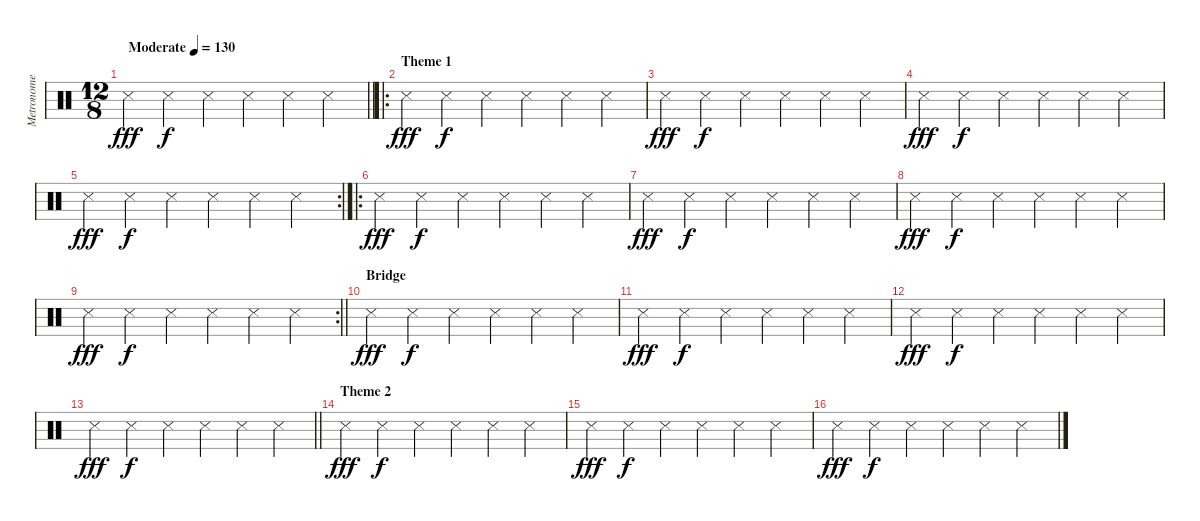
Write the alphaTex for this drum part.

\track ("Metronome" "Metronome") {instrument percussion}
\staff {score}
\articulation defaults
\ts (12 8)
\tempo (130 "Moderate")
\clef neutral
\barLineRight lightlight
\ks c "Snare (side stick) 3".4{dy fff} "Snare (side stick) 3".4{dy f} "Snare (side stick) 3".4 "Snare (side stick) 3".4 "Snare (side stick) 3".4 "Snare (side stick) 3".4
|
\ro
\section ("" "Theme 1")
"Snare (side stick) 3".4{dy fff} "Snare (side stick) 3".4{dy f} "Snare (side stick) 3".4 "Snare (side stick) 3".4 "Snare (side stick) 3".4 "Snare (side stick) 3".4 |
"Snare (side stick) 3".4{dy fff} "Snare (side stick) 3".4{dy f} "Snare (side stick) 3".4 "Snare (side stick) 3".4 "Snare (side stick) 3".4 "Snare (side stick) 3".4 |
"Snare (side stick) 3".4{dy fff} "Snare (side stick) 3".4{dy f} "Snare (side stick) 3".4 "Snare (side stick) 3".4 "Snare (side stick) 3".4 "Snare (side stick) 3".4 |
\rc 2 "Snare (side stick) 3".4{dy fff} "Snare (side stick) 3".4{dy f} "Snare (side stick) 3".4 "Snare (side stick) 3".4 "Snare (side stick) 3".4 "Snare (side stick) 3".4
|
\ro "Snare (side stick) 3".4{dy fff} "Snare (side stick) 3".4{dy f} "Snare (side stick) 3".4 "Snare (side stick) 3".4 "Snare (side stick) 3".4 "Snare (side stick) 3".4
|
"Snare (side stick) 3".4{dy fff} "Snare (side stick) 3".4{dy f} "Snare (side stick) 3".4 "Snare (side stick) 3".4 "Snare (side stick) 3".4 "Snare (side stick) 3".4 |
"Snare (side stick) 3".4{dy fff} "Snare (side stick) 3".4{dy f} "Snare (side stick) 3".4 "Snare (side stick) 3".4 "Snare (side stick) 3".4 "Snare (side stick) 3".4 |
\rc 2
\barLineRight lightlight "Snare (side stick) 3".4{dy fff} "Snare (side stick) 3".4{dy f} "Snare (side stick) 3".4 "Snare (side stick) 3".4 "Snare (side stick) 3".4 "Snare (side stick) 3".4
|
\section ("" "Bridge")
"Snare (side stick) 3".4{dy fff} "Snare (side stick) 3".4{dy f} "Snare (side stick) 3".4 "Snare (side stick) 3".4 "Snare (side stick) 3".4 "Snare (side stick) 3".4 |
"Snare (side stick) 3".4{dy fff} "Snare (side stick) 3".4{dy f} "Snare (side stick) 3".4 "Snare (side stick) 3".4 "Snare (side stick) 3".4 "Snare (side stick) 3".4 |
"Snare (side stick) 3".4{dy fff} "Snare (side stick) 3".4{dy f} "Snare (side stick) 3".4 "Snare (side stick) 3".4 "Snare (side stick) 3".4 "Snare (side stick) 3".4 |
\barLineRight lightlight "Snare (side stick) 3".4{dy fff} "Snare (side stick) 3".4{dy f} "Snare (side stick) 3".4 "Snare (side stick) 3".4 "Snare (side stick) 3".4 "Snare (side stick) 3".4
|
\section ("" "Theme 2")
"Snare (side stick) 3".4{dy fff} "Snare (side stick) 3".4{dy f} "Snare (side stick) 3".4 "Snare (side stick) 3".4 "Snare (side stick) 3".4 "Snare (side stick) 3".4 |
"Snare (side stick) 3".4{dy fff} "Snare (side stick) 3".4{dy f} "Snare (side stick) 3".4 "Snare (side stick) 3".4 "Snare (side stick) 3".4 "Snare (side stick) 3".4 |
"Snare (side stick) 3".4{dy fff} "Snare (side stick) 3".4{dy f} "Snare (side stick) 3".4 "Snare (side stick) 3".4 "Snare (side stick) 3".4 "Snare (side stick) 3".4
